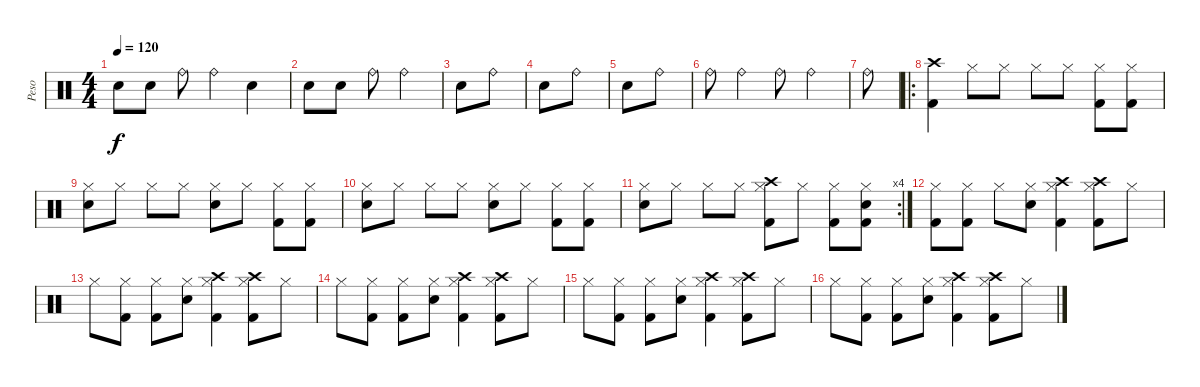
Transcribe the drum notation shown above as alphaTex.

\track ("Peso" "Peso") {instrument percussion}
\staff {score}
\articulation defaults
\ts (4 4)
\tempo 120
\clef neutral
\ks c "Snare (hit)"{x}.8{dy f} "Snare (hit)"{x}.8 "Ride (bell)"{x}.8 "Ride (bell)".4 "Snare (hit)"{x}.4
|
"Snare (hit)"{x}.8 "Snare (hit)"{x}.8 "Ride (bell)".8 "Ride (bell)".4 |
"Snare (hit)"{x}.8 "Ride (bell)".8 |
"Snare (hit)"{x}.8 "Ride (bell)".8 |
"Snare (hit)"{x}.8 "Ride (bell)".8 |
"Ride (bell)"{x}.8 "Ride (bell)"{x}.4 "Ride (bell)".8 "Ride (bell)".4 |
"Ride (bell)".8 |
\ro
("Crash high (hit)" "Kick (hit) 2").4 "Hi-Hat (closed)".8 "Hi-Hat (closed)".8 "Hi-Hat (closed)".8 "Hi-Hat (closed)".8 ("Hi-Hat (closed)" "Kick (hit) 2").8 ("Hi-Hat (closed)" "Kick (hit) 2").8 |
("Hi-Hat (closed)" "Snare (hit) 2").8 "Hi-Hat (closed)".8 "Hi-Hat (closed)".8 "Hi-Hat (closed)".8 ("Hi-Hat (closed)" "Snare (hit) 2").8 "Hi-Hat (closed)".8 ("Hi-Hat (closed)" "Kick (hit) 2").8 ("Hi-Hat (closed)" "Kick (hit) 2").8 |
("Hi-Hat (closed)" "Snare (hit) 2").8 "Hi-Hat (closed)".8 "Hi-Hat (closed)".8 "Hi-Hat (closed)".8 ("Hi-Hat (closed)" "Snare (hit) 2").8 "Hi-Hat (closed)".8 ("Hi-Hat (closed)" "Kick (hit) 2").8 ("Hi-Hat (closed)" "Kick (hit) 2").8 |
\rc 4
("Hi-Hat (closed)" "Snare (hit) 2").8 "Hi-Hat (closed)".8 "Hi-Hat (closed)".8 "Hi-Hat (closed)".8 ("Crash high (hit)" "Hi-Hat (closed)" "Kick (hit) 2").8 "Hi-Hat (closed)".8 ("Hi-Hat (closed)" "Kick (hit) 2").8 ("Hi-Hat (closed)" "Snare (hit) 2" "Kick (hit) 2").8 |
("Hi-Hat (closed)" "Kick (hit) 2").8 ("Hi-Hat (closed)" "Kick (hit) 2").8 "Hi-Hat (closed)".8 ("Hi-Hat (closed)" "Snare (hit) 2").8 ("Crash high (hit)" "Hi-Hat (closed)" "Kick (hit) 2").4 ("Crash high (hit)" "Hi-Hat (closed)" "Kick (hit) 2").8 "Hi-Hat (closed)".8 |
"Hi-Hat (closed)".8 ("Hi-Hat (closed)" "Kick (hit) 2").8 ("Hi-Hat (closed)" "Kick (hit) 2").8 ("Hi-Hat (closed)" "Snare (hit) 2").8 ("Crash high (hit)" "Hi-Hat (closed)" "Kick (hit) 2").4 ("Crash high (hit)" "Hi-Hat (closed)" "Kick (hit) 2").8 "Hi-Hat (closed)".8 |
"Hi-Hat (closed)".8 ("Hi-Hat (closed)" "Kick (hit) 2").8 ("Hi-Hat (closed)" "Kick (hit) 2").8 ("Hi-Hat (closed)" "Snare (hit) 2").8 ("Crash high (hit)" "Hi-Hat (closed)" "Kick (hit) 2").4 ("Crash high (hit)" "Hi-Hat (closed)" "Kick (hit) 2").8 "Hi-Hat (closed)".8 |
"Hi-Hat (closed)".8 ("Hi-Hat (closed)" "Kick (hit) 2").8 ("Hi-Hat (closed)" "Kick (hit) 2").8 ("Hi-Hat (closed)" "Snare (hit) 2").8 ("Crash high (hit)" "Hi-Hat (closed)" "Kick (hit) 2").4 ("Crash high (hit)" "Hi-Hat (closed)" "Kick (hit) 2").8 "Hi-Hat (closed)".8 |
"Hi-Hat (closed)".8 ("Hi-Hat (closed)" "Kick (hit) 2").8 ("Hi-Hat (closed)" "Kick (hit) 2").8 ("Hi-Hat (closed)" "Snare (hit) 2").8 ("Crash high (hit)" "Hi-Hat (closed)" "Kick (hit) 2").4 ("Crash high (hit)" "Hi-Hat (closed)" "Kick (hit) 2").8 "Hi-Hat (closed)".8
